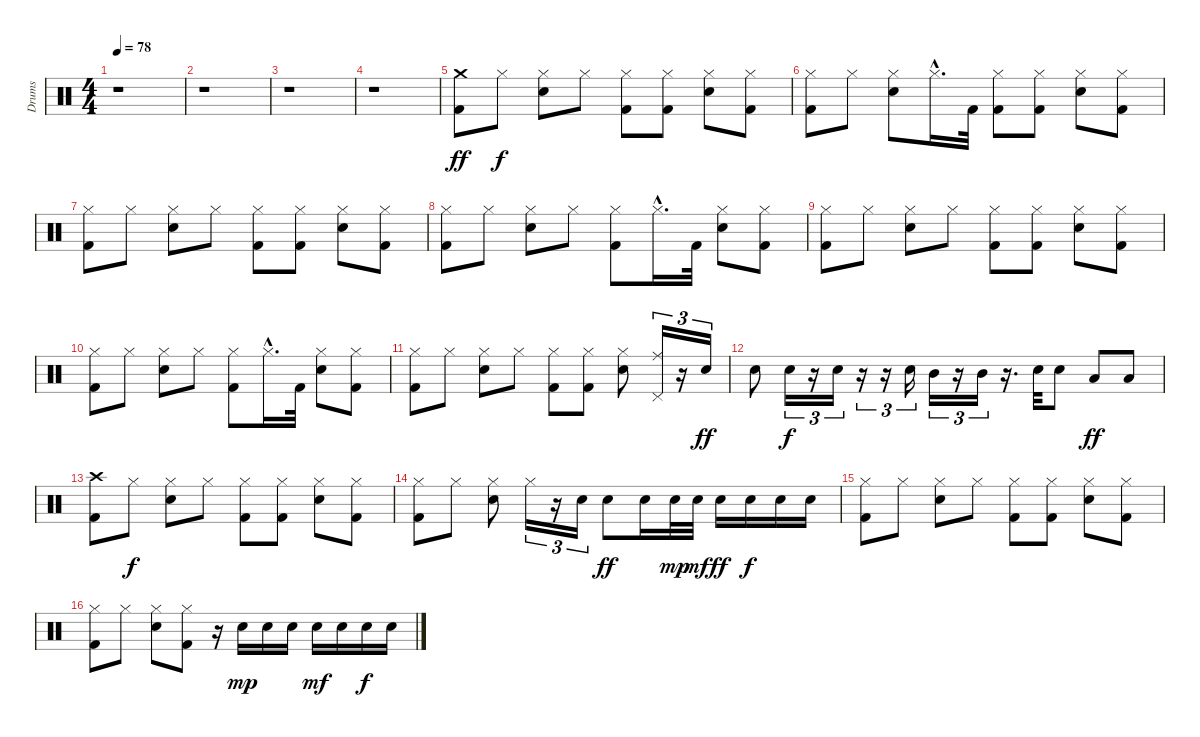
\track ("Drums" "Drums") {instrument percussion}
\staff {score}
\articulation defaults
\ts (4 4)
\tempo 78
\clef neutral
\ks c
r.1{dy ff} |
r.1 |
r.1 |
r.1 |
("Crash medium (hit)" "Kick (hit) 2").8 "Hi-Hat (closed)".8{dy f} ("Hi-Hat (closed)" "Electric Snare (hit)").8 "Hi-Hat (closed)".8 ("Hi-Hat (closed)" "Kick (hit) 2").8 ("Hi-Hat (closed)" "Kick (hit) 2").8 ("Hi-Hat (closed)" "Electric Snare (hit)").8 ("Hi-Hat (closed)" "Kick (hit) 2").8 |
("Hi-Hat (closed)" "Kick (hit) 2").8 "Hi-Hat (closed)".8 ("Hi-Hat (closed)" "Electric Snare (hit)").8 "Hi-Hat (closed)"{hac}.16{d} "Kick (hit) 2".32 ("Hi-Hat (closed)" "Kick (hit) 2").8 ("Hi-Hat (closed)" "Kick (hit) 2").8 ("Hi-Hat (closed)" "Electric Snare (hit)").8 ("Hi-Hat (closed)" "Kick (hit) 2").8 |
("Hi-Hat (closed)" "Kick (hit) 2").8 "Hi-Hat (closed)".8 ("Hi-Hat (closed)" "Electric Snare (hit)").8 "Hi-Hat (closed)".8 ("Hi-Hat (closed)" "Kick (hit) 2").8 ("Hi-Hat (closed)" "Kick (hit) 2").8 ("Hi-Hat (closed)" "Electric Snare (hit)").8 ("Hi-Hat (closed)" "Kick (hit) 2").8 |
("Hi-Hat (closed)" "Kick (hit) 2").8 "Hi-Hat (closed)".8 ("Hi-Hat (closed)" "Electric Snare (hit)").8 "Hi-Hat (closed)".8 ("Hi-Hat (closed)" "Kick (hit) 2").8 "Hi-Hat (closed)"{hac}.16{d} "Kick (hit) 2".32 ("Hi-Hat (closed)" "Electric Snare (hit)").8 ("Hi-Hat (closed)" "Kick (hit) 2").8 |
("Hi-Hat (closed)" "Kick (hit) 2").8 "Hi-Hat (closed)".8 ("Hi-Hat (closed)" "Electric Snare (hit)").8 "Hi-Hat (closed)".8 ("Hi-Hat (closed)" "Kick (hit) 2").8 ("Hi-Hat (closed)" "Kick (hit) 2").8 ("Hi-Hat (closed)" "Electric Snare (hit)").8 ("Hi-Hat (closed)" "Kick (hit) 2").8 |
("Hi-Hat (closed)" "Kick (hit) 2").8 "Hi-Hat (closed)".8 ("Hi-Hat (closed)" "Electric Snare (hit)").8 "Hi-Hat (closed)".8 ("Hi-Hat (closed)" "Kick (hit) 2").8 "Hi-Hat (closed)"{hac}.16{d} "Kick (hit) 2".32 ("Hi-Hat (closed)" "Electric Snare (hit)").8 ("Hi-Hat (closed)" "Kick (hit) 2").8 |
("Hi-Hat (closed)" "Kick (hit) 2").8 "Hi-Hat (closed)".8 ("Hi-Hat (closed)" "Electric Snare (hit)").8 "Hi-Hat (closed)".8 ("Hi-Hat (closed)" "Kick (hit) 2").8 ("Hi-Hat (closed)" "Kick (hit) 2").8 ("Hi-Hat (closed)" "Electric Snare (hit)").8 ("Pedal Hi-Hat (hit)" "Ride (middle)").16{tu (3 2)} r.16{tu (3 2)} "Electric Snare (hit)".16{tu (3 2) dy ff} |
"Electric Snare (hit)".8 "Electric Snare (hit)".16{tu (3 2) dy f} r.16{tu (3 2)} "Electric Snare (hit)".16{tu (3 2)} r.16{tu (3 2)} r.16{tu (3 2)} "Electric Snare (hit)".16{tu (3 2)} "Mid Tom (hit)".16{tu (3 2)} r.16{tu (3 2)} "Mid Tom (hit)".16{tu (3 2)} r.16{d} "Electric Snare (hit)".32 "Electric Snare (hit)".8 "Low Tom (hit)".8{dy ff} "Low Tom (hit)".8 |
("Crash high (hit)" "Kick (hit) 2").8 "Hi-Hat (closed)".8{dy f} ("Hi-Hat (closed)" "Electric Snare (hit)").8 "Hi-Hat (closed)".8 ("Hi-Hat (closed)" "Kick (hit) 2").8 ("Hi-Hat (closed)" "Kick (hit) 2").8 ("Hi-Hat (closed)" "Electric Snare (hit)").8 ("Hi-Hat (closed)" "Kick (hit) 2").8 |
("Hi-Hat (closed)" "Kick (hit) 2").8 "Hi-Hat (closed)".8 ("Hi-Hat (closed)" "Electric Snare (hit)").8 "Hi-Hat (closed)".16{tu (3 2)} r.16{tu (3 2)} "Electric Snare (hit)".16{tu (3 2)} "Electric Snare (hit)".8{dy ff} "Electric Snare (hit)".16 "Electric Snare (hit)".32{dy mp} "Electric Snare (hit)".32{dy mf} "Electric Snare (hit)".16{dy ff} "Electric Snare (hit)".16{dy f} "Electric Snare (hit)".16 "Electric Snare (hit)".16 |
("Hi-Hat (closed)" "Kick (hit) 2").8 "Hi-Hat (closed)".8 ("Hi-Hat (closed)" "Electric Snare (hit)").8 "Hi-Hat (closed)".8 ("Hi-Hat (closed)" "Kick (hit) 2").8 ("Hi-Hat (closed)" "Kick (hit) 2").8 ("Hi-Hat (closed)" "Electric Snare (hit)").8 ("Hi-Hat (closed)" "Kick (hit) 2").8 |
("Hi-Hat (closed)" "Kick (hit) 2").8 "Hi-Hat (closed)".8 ("Hi-Hat (closed)" "Electric Snare (hit)").8 ("Hi-Hat (closed)" "Kick (hit) 2").8 r.16 "Electric Snare (hit)".16{dy mp} "Electric Snare (hit)".16 "Electric Snare (hit)".16 "Electric Snare (hit)".16{dy mf} "Electric Snare (hit)".16 "Electric Snare (hit)".16{dy f} "Electric Snare (hit)".16
